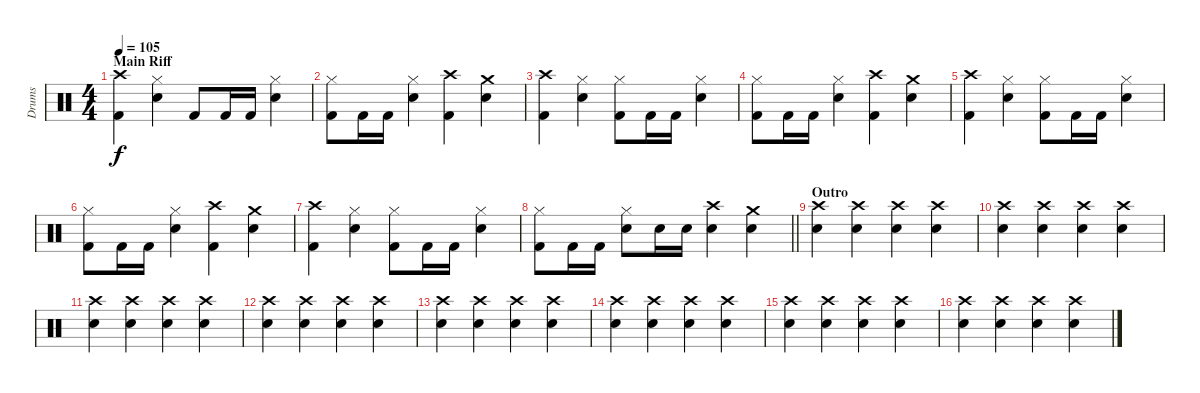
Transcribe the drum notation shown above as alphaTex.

\track ("Drums" "Drums") {instrument percussion}
\staff {score}
\articulation defaults
\ts (4 4)
\section ("" "Main Riff")
\tempo 105
\clef neutral
\ks c
("Crash high (hit)" "Kick (hit) 2").4{dy f} ("Hi-Hat (closed)" "Snare (hit) 2").4 "Kick (hit) 2".8 "Kick (hit) 2".16 "Kick (hit) 2".16 ("Hi-Hat (closed)" "Snare (hit) 2").4 |
("Hi-Hat (closed)" "Kick (hit) 2").8 "Kick (hit) 2".16 "Kick (hit) 2".16 ("Hi-Hat (closed)" "Snare (hit) 2").4 ("Crash high (hit)" "Kick (hit) 2").4 ("Crash medium (hit)" "Snare (hit) 2").4 |
("Crash high (hit)" "Kick (hit) 2").4 ("Hi-Hat (closed)" "Snare (hit) 2").4 ("Hi-Hat (closed)" "Kick (hit) 2").8 "Kick (hit) 2".16 "Kick (hit) 2".16 ("Hi-Hat (closed)" "Snare (hit) 2").4 |
("Hi-Hat (closed)" "Kick (hit) 2").8 "Kick (hit) 2".16 "Kick (hit) 2".16 ("Hi-Hat (closed)" "Snare (hit) 2").4 ("Crash high (hit)" "Kick (hit) 2").4 ("Crash medium (hit)" "Snare (hit) 2").4 |
("Crash high (hit)" "Kick (hit) 2").4 ("Hi-Hat (closed)" "Snare (hit) 2").4 ("Hi-Hat (closed)" "Kick (hit) 2").8 "Kick (hit) 2".16 "Kick (hit) 2".16 ("Hi-Hat (closed)" "Snare (hit) 2").4 |
("Hi-Hat (closed)" "Kick (hit) 2").8 "Kick (hit) 2".16 "Kick (hit) 2".16 ("Hi-Hat (closed)" "Snare (hit) 2").4 ("Crash high (hit)" "Kick (hit) 2").4 ("Crash medium (hit)" "Snare (hit) 2").4 |
("Crash high (hit)" "Kick (hit) 2").4 ("Hi-Hat (closed)" "Snare (hit) 2").4 ("Hi-Hat (closed)" "Kick (hit) 2").8 "Kick (hit) 2".16 "Kick (hit) 2".16 ("Hi-Hat (closed)" "Snare (hit) 2").4 |
\barLineRight lightlight
("Hi-Hat (closed)" "Kick (hit) 2").8 "Kick (hit) 2".16 "Kick (hit) 2".16 ("Hi-Hat (closed)" "Snare (hit) 2").8 "Snare (hit) 2".16 "Snare (hit) 2".16 ("Crash high (hit)" "Snare (hit) 2").4 ("Crash medium (hit)" "Snare (hit) 2").4 |
\section ("" "Outro")
("Crash high (hit)" "Snare (hit) 2").4{volume 13} ("Crash high (hit)" "Snare (hit) 2").4 ("Crash high (hit)" "Snare (hit) 2").4 ("Crash high (hit)" "Snare (hit) 2").4 |
("Crash high (hit)" "Snare (hit) 2").4 ("Crash high (hit)" "Snare (hit) 2").4 ("Crash high (hit)" "Snare (hit) 2").4 ("Crash high (hit)" "Snare (hit) 2").4 |
("Crash high (hit)" "Snare (hit) 2").4{volume 10} ("Crash high (hit)" "Snare (hit) 2").4 ("Crash high (hit)" "Snare (hit) 2").4 ("Crash high (hit)" "Snare (hit) 2").4 |
("Crash high (hit)" "Snare (hit) 2").4 ("Crash high (hit)" "Snare (hit) 2").4 ("Crash high (hit)" "Snare (hit) 2").4 ("Crash high (hit)" "Snare (hit) 2").4 |
("Crash high (hit)" "Snare (hit) 2").4{volume 8} ("Crash high (hit)" "Snare (hit) 2").4 ("Crash high (hit)" "Snare (hit) 2").4 ("Crash high (hit)" "Snare (hit) 2").4 |
("Crash high (hit)" "Snare (hit) 2").4 ("Crash high (hit)" "Snare (hit) 2").4 ("Crash high (hit)" "Snare (hit) 2").4 ("Crash high (hit)" "Snare (hit) 2").4 |
("Crash high (hit)" "Snare (hit) 2").4{volume 5} ("Crash high (hit)" "Snare (hit) 2").4 ("Crash high (hit)" "Snare (hit) 2").4 ("Crash high (hit)" "Snare (hit) 2").4 |
("Crash high (hit)" "Snare (hit) 2").4 ("Crash high (hit)" "Snare (hit) 2").4 ("Crash high (hit)" "Snare (hit) 2").4 ("Crash high (hit)" "Snare (hit) 2").4
